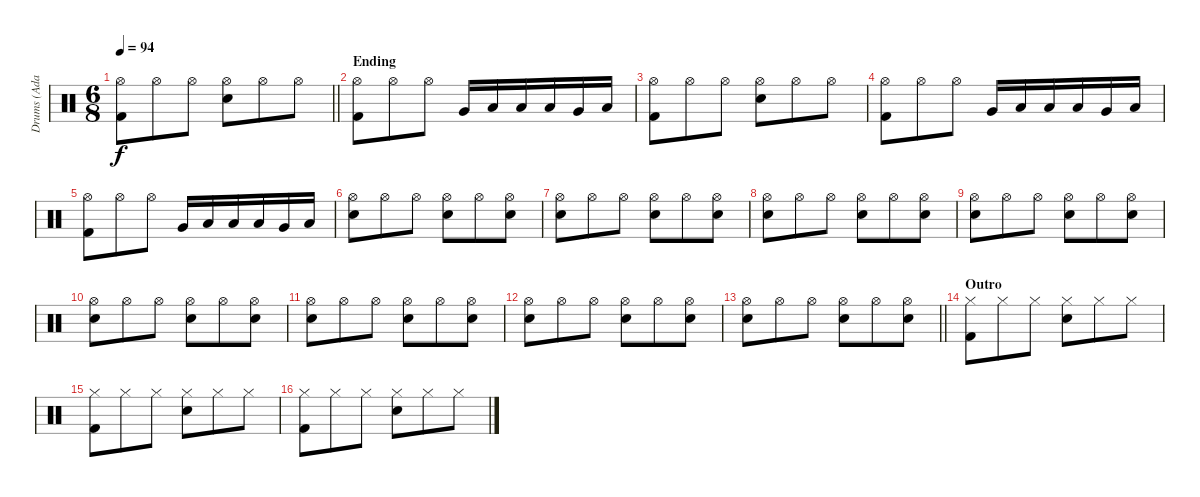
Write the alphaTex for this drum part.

\track ("Drums (Adam)" "Drums (Ada") {instrument percussion}
\staff {score}
\articulation defaults
\ts (6 8)
\tempo 94
\clef neutral
\barLineRight lightlight
\ks c
("Hi-Hat (open)" "Kick (hit) 2").8{dy f} "Hi-Hat (open)".8 "Hi-Hat (open)".8 ("Hi-Hat (open)" "Snare (hit) 2").8 "Hi-Hat (open)".8 "Hi-Hat (open)".8 |
\section ("" "Ending")
("Hi-Hat (open)" "Kick (hit) 2").8 "Hi-Hat (open)".8 "Hi-Hat (open)".8 "Very Low Tom (hit)".16 "Low Floor Tom (hit)".16 "Low Tom (hit)".16 "Low Floor Tom (hit)".16 "Very Low Tom (hit)".16 "Low Floor Tom (hit)".16 |
("Hi-Hat (open)" "Kick (hit) 2").8 "Hi-Hat (open)".8 "Hi-Hat (open)".8 ("Hi-Hat (open)" "Snare (hit) 2").8 "Hi-Hat (open)".8 "Hi-Hat (open)".8 |
("Hi-Hat (open)" "Kick (hit) 2").8 "Hi-Hat (open)".8 "Hi-Hat (open)".8 "Very Low Tom (hit)".16 "Low Floor Tom (hit)".16 "Low Tom (hit)".16 "Low Floor Tom (hit)".16 "Very Low Tom (hit)".16 "Low Floor Tom (hit)".16 |
("Hi-Hat (open)" "Kick (hit) 2").8 "Hi-Hat (open)".8 "Hi-Hat (open)".8 "Very Low Tom (hit)".16 "Low Floor Tom (hit)".16 "Low Tom (hit)".16 "Low Floor Tom (hit)".16 "Very Low Tom (hit)".16 "Low Floor Tom (hit)".16 |
("Hi-Hat (open)" "Snare (hit) 2").8 "Hi-Hat (open)".8 "Hi-Hat (open)".8 ("Hi-Hat (open)" "Snare (hit) 2").8 "Hi-Hat (open)".8 ("Hi-Hat (open)" "Snare (hit) 2").8 |
("Hi-Hat (open)" "Snare (hit) 2").8 "Hi-Hat (open)".8 "Hi-Hat (open)".8 ("Hi-Hat (open)" "Snare (hit) 2").8 "Hi-Hat (open)".8 ("Hi-Hat (open)" "Snare (hit) 2").8 |
("Hi-Hat (open)" "Snare (hit) 2").8 "Hi-Hat (open)".8 "Hi-Hat (open)".8 ("Hi-Hat (open)" "Snare (hit) 2").8 "Hi-Hat (open)".8 ("Hi-Hat (open)" "Snare (hit) 2").8 |
("Hi-Hat (open)" "Snare (hit) 2").8 "Hi-Hat (open)".8 "Hi-Hat (open)".8 ("Hi-Hat (open)" "Snare (hit) 2").8 "Hi-Hat (open)".8 ("Hi-Hat (open)" "Snare (hit) 2").8 |
("Hi-Hat (open)" "Snare (hit) 2").8 "Hi-Hat (open)".8 "Hi-Hat (open)".8 ("Hi-Hat (open)" "Snare (hit) 2").8 "Hi-Hat (open)".8 ("Hi-Hat (open)" "Snare (hit) 2").8 |
("Hi-Hat (open)" "Snare (hit) 2").8 "Hi-Hat (open)".8 "Hi-Hat (open)".8 ("Hi-Hat (open)" "Snare (hit) 2").8 "Hi-Hat (open)".8 ("Hi-Hat (open)" "Snare (hit) 2").8 |
("Hi-Hat (open)" "Snare (hit) 2").8 "Hi-Hat (open)".8 "Hi-Hat (open)".8 ("Hi-Hat (open)" "Snare (hit) 2").8 "Hi-Hat (open)".8 ("Hi-Hat (open)" "Snare (hit) 2").8 |
\barLineRight lightlight
("Hi-Hat (open)" "Snare (hit) 2").8 "Hi-Hat (open)".8 "Hi-Hat (open)".8 ("Hi-Hat (open)" "Snare (hit) 2").8 "Hi-Hat (open)".8 ("Hi-Hat (open)" "Snare (hit) 2").8 |
\section ("" "Outro")
("Hi-Hat (closed)" "Kick (hit) 2").8 "Hi-Hat (closed)".8 "Hi-Hat (closed)".8 ("Hi-Hat (closed)" "Snare (hit) 2").8 "Hi-Hat (closed)".8 "Hi-Hat (closed)".8 |
("Hi-Hat (closed)" "Kick (hit) 2").8 "Hi-Hat (closed)".8 "Hi-Hat (closed)".8 ("Hi-Hat (closed)" "Snare (hit) 2").8 "Hi-Hat (closed)".8 "Hi-Hat (closed)".8 |
("Hi-Hat (closed)" "Kick (hit) 2").8 "Hi-Hat (closed)".8 "Hi-Hat (closed)".8 ("Hi-Hat (closed)" "Snare (hit) 2").8 "Hi-Hat (closed)".8 "Hi-Hat (closed)".8
